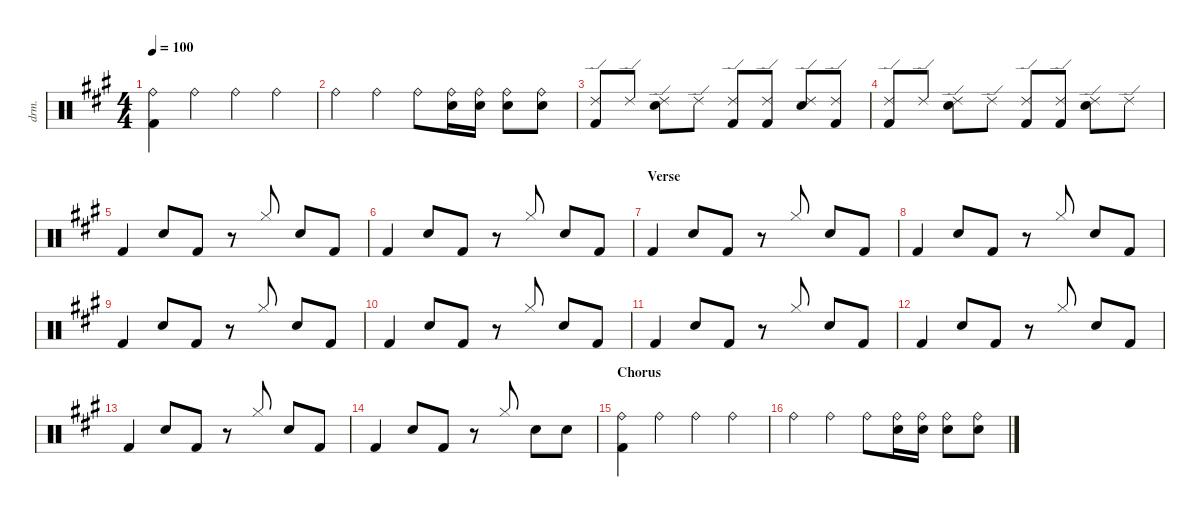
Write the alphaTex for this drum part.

\defaultSystemsLayout 4
\hideDynamics
\bracketExtendMode nobrackets
\otherSystemsTrackNameOrientation horizontal
\track ("Drums" "drm.") {instrument percussion}
\staff {score}
\articulation defaults
\ts (4 4)
\tempo 100
\clef neutral
\ks a
("Ride (bell)"{acc forcenatural} "Kick (hit) 2"{acc forcenatural}).4{dy f beam Down} "Ride (bell)"{acc forcenatural}.4{beam Down} "Ride (bell)"{acc forcenatural}.4{beam Down} "Ride (bell)"{acc forcenatural}.4{beam Down} |
"Ride (bell)"{acc forcenatural}.4{beam Down} "Ride (bell)"{acc forcenatural}.4{beam Down} "Ride (bell)"{acc forcenatural}.8{beam Down} ("Ride (bell)"{acc forcenatural} "Snare (hit) 2"{acc forcenatural}).16{beam Down} ("Ride (bell)"{acc forcenatural} "Snare (hit) 2"{acc forcenatural}).16{beam Down} ("Ride (bell)"{acc forcenatural} "Snare (hit) 2"{acc forcenatural}).8{beam Down} ("Ride (bell)"{acc forcenatural} "Snare (hit) 2"{acc forcenatural}).8{beam Down} |
("Ride (edge) 2"{acc forcenatural} "Kick (hit) 2"{acc forcenatural}).8{beam Up} "Ride (edge) 2"{acc forcenatural}.8{beam Up} ("Ride (edge) 2"{acc forcenatural} "Snare (hit) 2"{acc forcenatural}).8{beam Down} "Ride (edge) 2"{acc forcenatural}.8{beam Down} ("Ride (edge) 2"{acc forcenatural} "Kick (hit) 2"{acc forcenatural}).8{beam Up} ("Ride (edge) 2"{acc forcenatural} "Kick (hit) 2"{acc forcenatural}).8{beam Up} ("Ride (edge) 2"{acc forcenatural} "Snare (hit) 2"{acc forcenatural}).8{beam Up} ("Ride (edge) 2"{acc forcenatural} "Kick (hit) 2"{acc forcenatural}).8{beam Up} |
("Ride (edge) 2"{acc forcenatural} "Kick (hit) 2"{acc forcenatural}).8{beam Up} "Ride (edge) 2"{acc forcenatural}.8{beam Up} ("Ride (edge) 2"{acc forcenatural} "Snare (hit) 2"{acc forcenatural}).8{beam Down} "Ride (edge) 2"{acc forcenatural}.8{beam Down} ("Ride (edge) 2"{acc forcenatural} "Kick (hit) 2"{acc forcenatural}).8{beam Up} ("Ride (edge) 2"{acc forcenatural} "Kick (hit) 2"{acc forcenatural}).8{beam Up} ("Ride (edge) 2"{acc forcenatural} "Snare (hit) 2"{acc forcenatural}).8{beam Down} "Ride (edge) 2"{acc forcenatural}.8{beam Down} |
"Kick (hit) 2"{acc forcenatural}.4{beam Up} "Snare (hit) 2"{acc forcenatural}.8{beam Up} "Kick (hit) 2"{acc forcenatural}.8{beam Up} r.8{beam Up} "Hi-Hat (closed)"{acc forcenatural}.8{beam Down} "Snare (hit) 2"{acc forcenatural}.8{beam Up} "Kick (hit) 2"{acc forcenatural}.8{beam Up} |
"Kick (hit) 2"{acc forcenatural}.4{beam Up} "Snare (hit) 2"{acc forcenatural}.8{beam Up} "Kick (hit) 2"{acc forcenatural}.8{beam Up} r.8{beam Up} "Hi-Hat (closed)"{acc forcenatural}.8{beam Down} "Snare (hit) 2"{acc forcenatural}.8{beam Up} "Kick (hit) 2"{acc forcenatural}.8{beam Up} |
\section ("" "Verse")
"Kick (hit) 2"{acc forcenatural}.4{beam Up} "Snare (hit) 2"{acc forcenatural}.8{beam Up} "Kick (hit) 2"{acc forcenatural}.8{beam Up} r.8{beam Up} "Hi-Hat (closed)"{acc forcenatural}.8{beam Down} "Snare (hit) 2"{acc forcenatural}.8{beam Up} "Kick (hit) 2"{acc forcenatural}.8{beam Up} |
"Kick (hit) 2"{acc forcenatural}.4{beam Up} "Snare (hit) 2"{acc forcenatural}.8{beam Up} "Kick (hit) 2"{acc forcenatural}.8{beam Up} r.8{beam Up} "Hi-Hat (closed)"{acc forcenatural}.8{beam Down} "Snare (hit) 2"{acc forcenatural}.8{beam Up} "Kick (hit) 2"{acc forcenatural}.8{beam Up} |
"Kick (hit) 2"{acc forcenatural}.4{beam Up} "Snare (hit) 2"{acc forcenatural}.8{beam Up} "Kick (hit) 2"{acc forcenatural}.8{beam Up} r.8{beam Up} "Hi-Hat (closed)"{acc forcenatural}.8{beam Down} "Snare (hit) 2"{acc forcenatural}.8{beam Up} "Kick (hit) 2"{acc forcenatural}.8{beam Up} |
"Kick (hit) 2"{acc forcenatural}.4{beam Up} "Snare (hit) 2"{acc forcenatural}.8{beam Up} "Kick (hit) 2"{acc forcenatural}.8{beam Up} r.8{beam Up} "Hi-Hat (closed)"{acc forcenatural}.8{beam Down} "Snare (hit) 2"{acc forcenatural}.8{beam Up} "Kick (hit) 2"{acc forcenatural}.8{beam Up} |
"Kick (hit) 2"{acc forcenatural}.4{beam Up} "Snare (hit) 2"{acc forcenatural}.8{beam Up} "Kick (hit) 2"{acc forcenatural}.8{beam Up} r.8{beam Up} "Hi-Hat (closed)"{acc forcenatural}.8{beam Down} "Snare (hit) 2"{acc forcenatural}.8{beam Up} "Kick (hit) 2"{acc forcenatural}.8{beam Up} |
"Kick (hit) 2"{acc forcenatural}.4{beam Up} "Snare (hit) 2"{acc forcenatural}.8{beam Up} "Kick (hit) 2"{acc forcenatural}.8{beam Up} r.8{beam Up} "Hi-Hat (closed)"{acc forcenatural}.8{beam Down} "Snare (hit) 2"{acc forcenatural}.8{beam Up} "Kick (hit) 2"{acc forcenatural}.8{beam Up} |
"Kick (hit) 2"{acc forcenatural}.4{beam Up} "Snare (hit) 2"{acc forcenatural}.8{beam Up} "Kick (hit) 2"{acc forcenatural}.8{beam Up} r.8{beam Up} "Hi-Hat (closed)"{acc forcenatural}.8{beam Down} "Snare (hit) 2"{acc forcenatural}.8{beam Up} "Kick (hit) 2"{acc forcenatural}.8{beam Up} |
"Kick (hit) 2"{acc forcenatural}.4{beam Up} "Snare (hit) 2"{acc forcenatural}.8{beam Up} "Kick (hit) 2"{acc forcenatural}.8{beam Up} r.8{beam Up} "Hi-Hat (closed)"{acc forcenatural}.8{beam Down} "Snare (hit) 2"{acc forcenatural}.8{beam Down} "Snare (hit) 2"{acc forcenatural}.8{beam Down} |
\section ("" "Chorus")
("Ride (bell)"{acc forcenatural} "Kick (hit) 2"{acc forcenatural}).4{beam Down} "Ride (bell)"{acc forcenatural}.4{beam Down} "Ride (bell)"{acc forcenatural}.4{beam Down} "Ride (bell)"{acc forcenatural}.4{beam Down} |
"Ride (bell)"{acc forcenatural}.4{beam Down} "Ride (bell)"{acc forcenatural}.4{beam Down} "Ride (bell)"{acc forcenatural}.8{beam Down} ("Ride (bell)"{acc forcenatural} "Snare (hit) 2"{acc forcenatural}).16{beam Down} ("Ride (bell)"{acc forcenatural} "Snare (hit) 2"{acc forcenatural}).16{beam Down} ("Ride (bell)"{acc forcenatural} "Snare (hit) 2"{acc forcenatural}).8{beam Down} ("Ride (bell)"{acc forcenatural} "Snare (hit) 2"{acc forcenatural}).8{beam Down}
